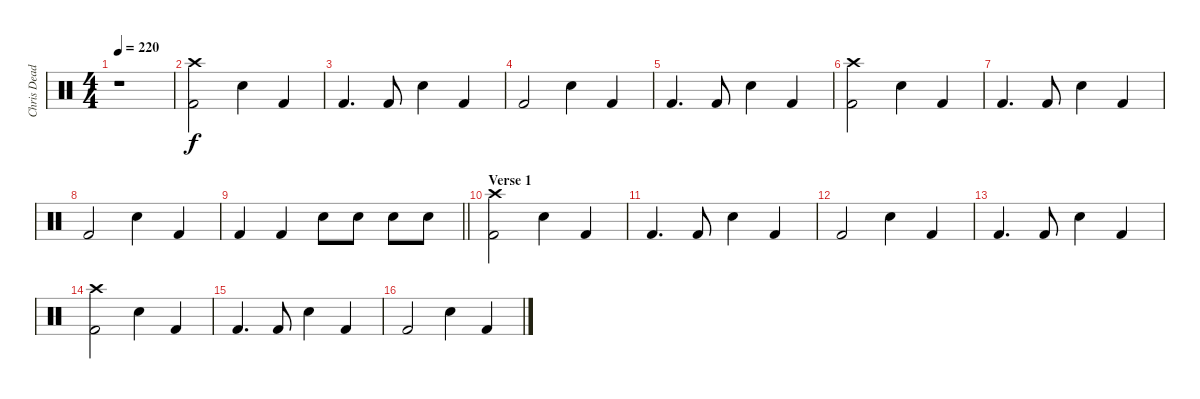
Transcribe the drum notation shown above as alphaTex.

\track ("Chris Dead" "Chris Dead") {instrument percussion}
\staff {score}
\articulation defaults
\ts (4 4)
\tempo 220
\clef neutral
\ks c
r.1{dy f} |
("Crash high (hit)" "Kick (hit) 2").2 "Electric Snare (hit)".4 "Kick (hit) 2".4 |
"Kick (hit) 2".4{d} "Kick (hit) 2".8 "Electric Snare (hit)".4 "Kick (hit) 2".4 |
"Kick (hit) 2".2 "Electric Snare (hit)".4 "Kick (hit) 2".4 |
"Kick (hit) 2".4{d} "Kick (hit) 2".8 "Electric Snare (hit)".4 "Kick (hit) 2".4 |
("Crash high (hit)" "Kick (hit) 2").2 "Electric Snare (hit)".4 "Kick (hit) 2".4 |
"Kick (hit) 2".4{d} "Kick (hit) 2".8 "Electric Snare (hit)".4 "Kick (hit) 2".4 |
"Kick (hit) 2".2 "Electric Snare (hit)".4 "Kick (hit) 2".4 |
\barLineRight lightlight "Kick (hit) 2".4 "Kick (hit) 2".4 "Electric Snare (hit)".8 "Electric Snare (hit)".8 "Electric Snare (hit)".8 "Electric Snare (hit)".8
|
\section ("" "Verse 1")
("Crash high (hit)" "Kick (hit) 2").2 "Electric Snare (hit)".4 "Kick (hit) 2".4 |
"Kick (hit) 2".4{d} "Kick (hit) 2".8 "Electric Snare (hit)".4 "Kick (hit) 2".4 |
"Kick (hit) 2".2 "Electric Snare (hit)".4 "Kick (hit) 2".4 |
"Kick (hit) 2".4{d} "Kick (hit) 2".8 "Electric Snare (hit)".4 "Kick (hit) 2".4 |
("Crash high (hit)" "Kick (hit) 2").2 "Electric Snare (hit)".4 "Kick (hit) 2".4 |
"Kick (hit) 2".4{d} "Kick (hit) 2".8 "Electric Snare (hit)".4 "Kick (hit) 2".4 |
"Kick (hit) 2".2 "Electric Snare (hit)".4 "Kick (hit) 2".4
